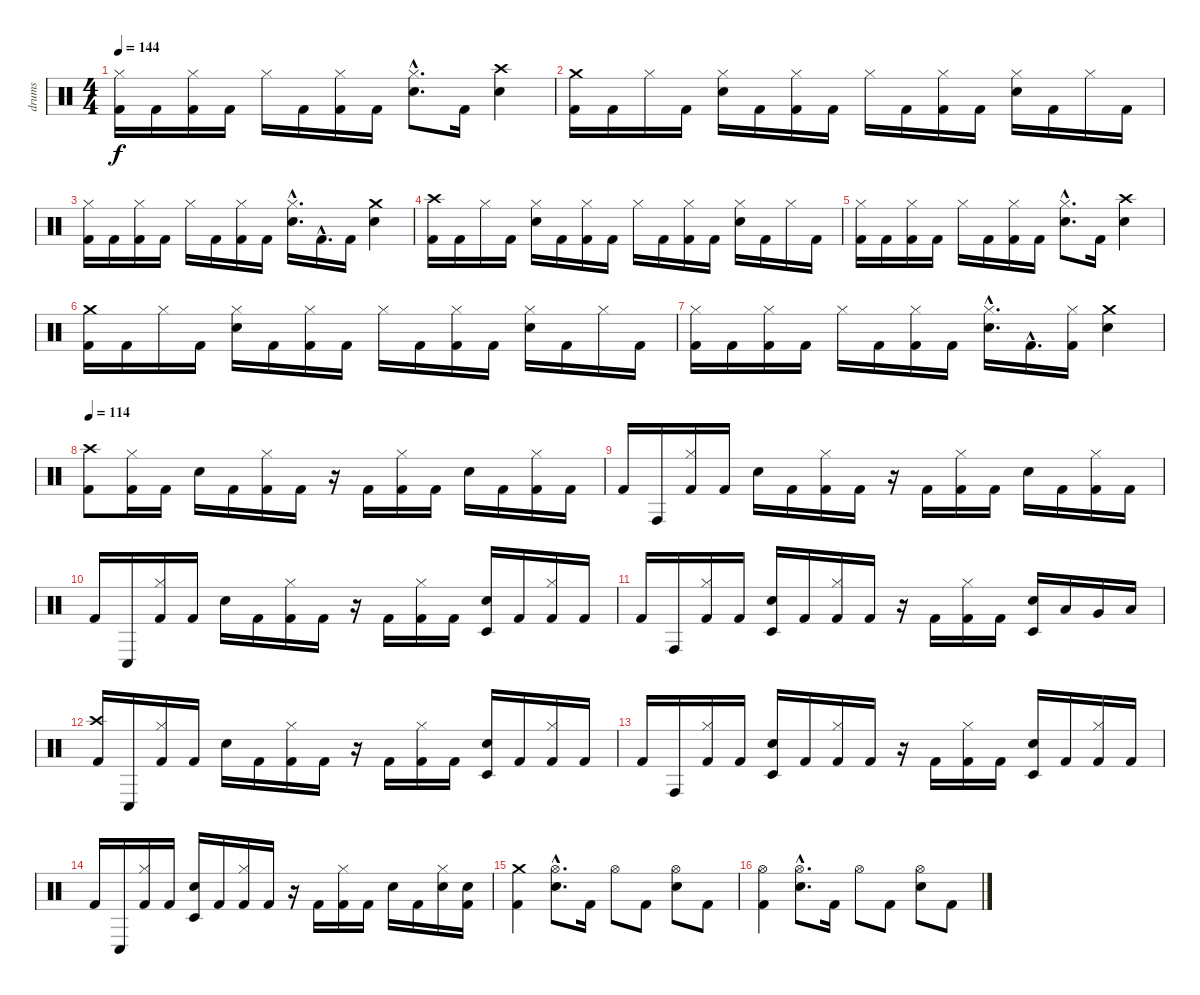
\track ("drums" "drums") {instrument percussion}
\staff {score}
\articulation defaults
\ts (4 4)
\tempo 144
\clef neutral
\ks c
("Hi-Hat (closed)" "Kick (hit) 2").16{dy f} "Kick (hit) 2".16 ("Hi-Hat (closed)" "Kick (hit) 2").16 "Kick (hit) 2".16 "Hi-Hat (closed)".16 "Kick (hit) 2".16 ("Hi-Hat (closed)" "Kick (hit) 2").16 "Kick (hit) 2".16 ("Hi-Hat (closed)"{hac} "Electric Snare (hit)"{hac}).8{d} "Kick (hit) 2".16 ("Crash high (hit)" "Electric Snare (hit)").4 |
("Crash medium (hit)" "Kick (hit) 2").16 "Kick (hit) 2".16 "Hi-Hat (closed)".16 "Kick (hit) 2".16 ("Hi-Hat (closed)" "Electric Snare (hit)").16 "Kick (hit) 2".16 ("Hi-Hat (closed)" "Kick (hit) 2").16 "Kick (hit) 2".16 "Hi-Hat (closed)".16 "Kick (hit) 2".16 ("Hi-Hat (closed)" "Kick (hit) 2").16 "Kick (hit) 2".16 ("Hi-Hat (closed)" "Electric Snare (hit)").16 "Kick (hit) 2".16 "Hi-Hat (closed)".16 "Kick (hit) 2".16 |
("Hi-Hat (closed)" "Kick (hit) 2").16 "Kick (hit) 2".16 ("Hi-Hat (closed)" "Kick (hit) 2").16 "Kick (hit) 2".16 "Hi-Hat (closed)".16 "Kick (hit) 2".16 ("Hi-Hat (closed)" "Kick (hit) 2").16 "Kick (hit) 2".16 ("Hi-Hat (closed)"{hac} "Electric Snare (hit)"{hac}).16{d} "Kick (hit) 2"{hac}.16{d} "Kick (hit) 2".16 ("Crash medium (hit)" "Electric Snare (hit)").4 |
("Crash high (hit)" "Kick (hit) 2").16 "Kick (hit) 2".16 "Hi-Hat (closed)".16 "Kick (hit) 2".16 ("Hi-Hat (closed)" "Electric Snare (hit)").16 "Kick (hit) 2".16 ("Hi-Hat (closed)" "Kick (hit) 2").16 "Kick (hit) 2".16 "Hi-Hat (closed)".16 "Kick (hit) 2".16 ("Hi-Hat (closed)" "Kick (hit) 2").16 "Kick (hit) 2".16 ("Hi-Hat (closed)" "Electric Snare (hit)").16 "Kick (hit) 2".16 "Hi-Hat (closed)".16 "Kick (hit) 2".16 |
("Hi-Hat (closed)" "Kick (hit) 2").16 "Kick (hit) 2".16 ("Hi-Hat (closed)" "Kick (hit) 2").16 "Kick (hit) 2".16 "Hi-Hat (closed)".16 "Kick (hit) 2".16 ("Hi-Hat (closed)" "Kick (hit) 2").16 "Kick (hit) 2".16 ("Hi-Hat (closed)"{hac} "Electric Snare (hit)"{hac}).8{d} "Kick (hit) 2".16 ("Crash high (hit)" "Electric Snare (hit)").4 |
("Crash medium (hit)" "Kick (hit) 2").16 "Kick (hit) 2".16 "Hi-Hat (closed)".16 "Kick (hit) 2".16 ("Hi-Hat (closed)" "Electric Snare (hit)").16 "Kick (hit) 2".16 ("Hi-Hat (closed)" "Kick (hit) 2").16 "Kick (hit) 2".16 "Hi-Hat (closed)".16 "Kick (hit) 2".16 ("Hi-Hat (closed)" "Kick (hit) 2").16 "Kick (hit) 2".16 ("Hi-Hat (closed)" "Electric Snare (hit)").16 "Kick (hit) 2".16 "Hi-Hat (closed)".16 "Kick (hit) 2".16 |
("Hi-Hat (closed)" "Kick (hit) 2").16 "Kick (hit) 2".16 ("Hi-Hat (closed)" "Kick (hit) 2").16 "Kick (hit) 2".16 "Hi-Hat (closed)".16 "Kick (hit) 2".16 ("Hi-Hat (closed)" "Kick (hit) 2").16 "Kick (hit) 2".16 ("Hi-Hat (closed)"{hac} "Electric Snare (hit)"{hac}).16{d} "Kick (hit) 2"{hac}.16{d} ("Hi-Hat (closed)" "Kick (hit) 2").16 ("Crash medium (hit)" "Electric Snare (hit)").4 |
\tempo 114
("Crash high (hit)" "Kick (hit) 2").8 ("Hi-Hat (closed)" "Kick (hit) 2").16 "Kick (hit) 2".16 "Electric Snare (hit)".16 "Kick (hit) 2".16 ("Hi-Hat (closed)" "Kick (hit) 2").16 "Kick (hit) 2".16 r.16 "Kick (hit) 2".16 ("Hi-Hat (closed)" "Kick (hit) 2").16 "Kick (hit) 2".16 "Electric Snare (hit)".16 "Kick (hit) 2".16 ("Hi-Hat (closed)" "Kick (hit) 2").16 "Kick (hit) 2".16 |
"Kick (hit) 2".16 "Conga high (hit)".16 ("Hi-Hat (closed)" "Kick (hit) 2").16 "Kick (hit) 2".16 "Electric Snare (hit)".16 "Kick (hit) 2".16 ("Hi-Hat (closed)" "Kick (hit) 2").16 "Kick (hit) 2".16 r.16 "Kick (hit) 2".16 ("Hi-Hat (closed)" "Kick (hit) 2").16 "Kick (hit) 2".16 "Electric Snare (hit)".16 "Kick (hit) 2".16 ("Hi-Hat (closed)" "Kick (hit) 2").16 "Kick (hit) 2".16 |
"Kick (hit) 2".16 "Conga low (hit)".16 ("Hi-Hat (closed)" "Kick (hit) 2").16 "Kick (hit) 2".16 "Electric Snare (hit)".16 "Kick (hit) 2".16 ("Hi-Hat (closed)" "Kick (hit) 2").16 "Kick (hit) 2".16 r.16 "Kick (hit) 2".16 ("Hi-Hat (closed)" "Kick (hit) 2").16 "Kick (hit) 2".16 ("Electric Snare (hit)" "Timbale low (hit)").16 "Kick (hit) 2".16 ("Hi-Hat (closed)" "Kick (hit) 2").16 "Kick (hit) 2".16 |
"Kick (hit) 2".16 "Conga high (hit)".16 ("Hi-Hat (closed)" "Kick (hit) 2").16 "Kick (hit) 2".16 ("Electric Snare (hit)" "Timbale low (hit)").16 "Kick (hit) 2".16 ("Hi-Hat (closed)" "Kick (hit) 2").16 "Kick (hit) 2".16 r.16 "Kick (hit) 2".16 ("Hi-Hat (closed)" "Kick (hit) 2").16 "Kick (hit) 2".16 ("Electric Snare (hit)" "Timbale low (hit)").16 "Low Tom (hit)".16 "Very Low Tom (hit)".16 "Low Floor Tom (hit)".16 |
("Crash high (hit)" "Kick (hit) 2").16 "Conga low (hit)".16 ("Hi-Hat (closed)" "Kick (hit) 2").16 "Kick (hit) 2".16 "Electric Snare (hit)".16 "Kick (hit) 2".16 ("Hi-Hat (closed)" "Kick (hit) 2").16 "Kick (hit) 2".16 r.16 "Kick (hit) 2".16 ("Hi-Hat (closed)" "Kick (hit) 2").16 "Kick (hit) 2".16 ("Electric Snare (hit)" "Timbale low (hit)").16 "Kick (hit) 2".16 ("Hi-Hat (closed)" "Kick (hit) 2").16 "Kick (hit) 2".16 |
"Kick (hit) 2".16 "Conga high (hit)".16 ("Hi-Hat (closed)" "Kick (hit) 2").16 "Kick (hit) 2".16 ("Electric Snare (hit)" "Timbale low (hit)").16 "Kick (hit) 2".16 ("Hi-Hat (closed)" "Kick (hit) 2").16 "Kick (hit) 2".16 r.16 "Kick (hit) 2".16 ("Hi-Hat (closed)" "Kick (hit) 2").16 "Kick (hit) 2".16 ("Electric Snare (hit)" "Timbale low (hit)").16 "Kick (hit) 2".16 ("Hi-Hat (closed)" "Kick (hit) 2").16 "Kick (hit) 2".16 |
"Kick (hit) 2".16 "Conga low (hit)".16 ("Hi-Hat (closed)" "Kick (hit) 2").16 "Kick (hit) 2".16 ("Electric Snare (hit)" "Timbale low (hit)").16 "Kick (hit) 2".16 ("Hi-Hat (closed)" "Kick (hit) 2").16 "Kick (hit) 2".16 r.16 "Kick (hit) 2".16 ("Hi-Hat (closed)" "Kick (hit) 2").16 "Kick (hit) 2".16 "Electric Snare (hit)".16 "Kick (hit) 2".16 ("Hi-Hat (closed)" "Electric Snare (hit)").16 ("Electric Snare (hit)" "Kick (hit) 2").16 |
("Crash medium (hit)" "Kick (hit) 2").4 ("Hi-Hat (open)"{hac} "Electric Snare (hit)"{hac}).8{d} "Kick (hit) 2".16 "Hi-Hat (open)".8 "Kick (hit) 2".8 ("Hi-Hat (open)" "Electric Snare (hit)").8 "Kick (hit) 2".8 |
("Hi-Hat (open)" "Kick (hit) 2").4 ("Hi-Hat (open)"{hac} "Electric Snare (hit)"{hac}).8{d} "Kick (hit) 2".16 "Hi-Hat (open)".8 "Kick (hit) 2".8 ("Hi-Hat (open)" "Electric Snare (hit)").8 "Kick (hit) 2".8
